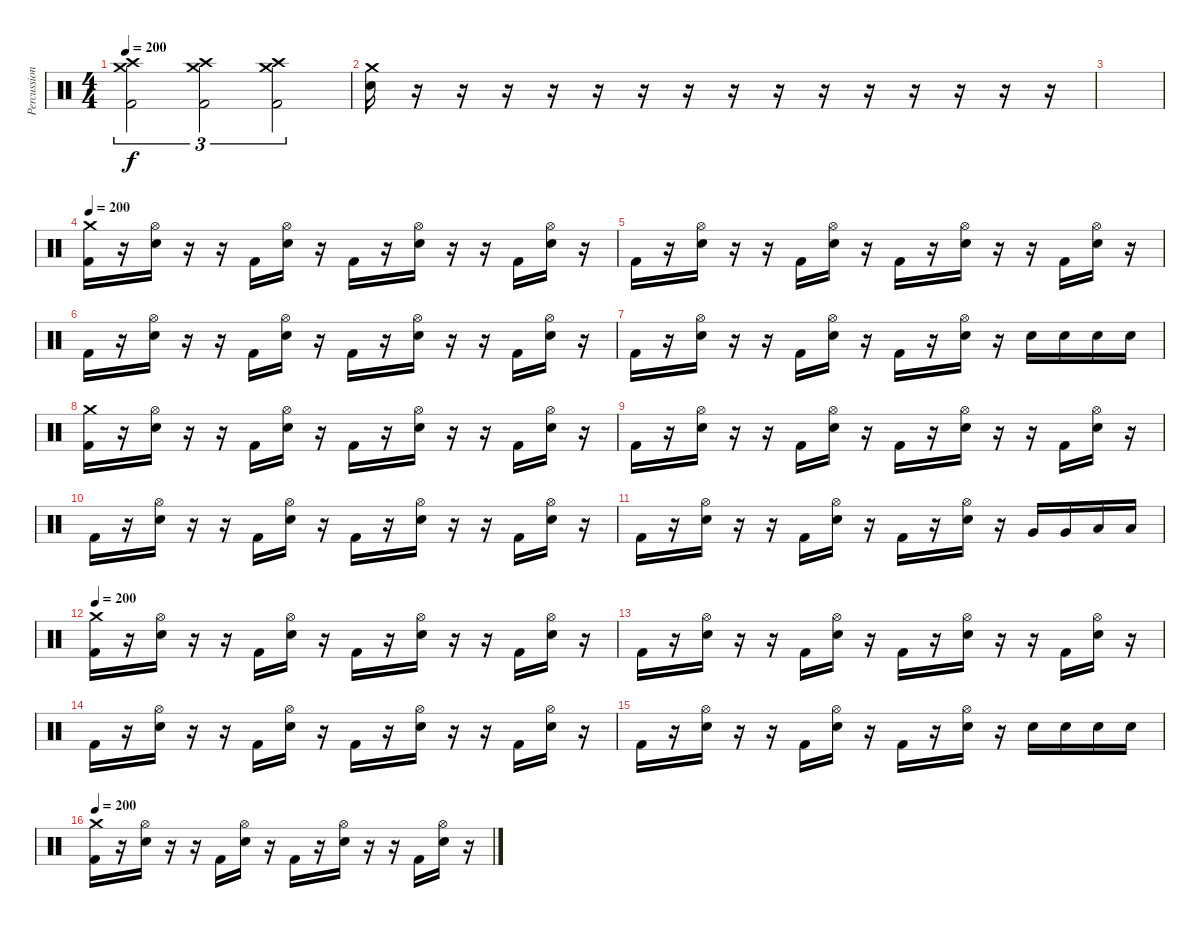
\track ("Percussion" "Percussion") {instrument percussion}
\staff {score}
\articulation defaults
\ts (4 4)
\tempo 200
\clef neutral
\ks c
("Crash medium (hit)" "Crash high (hit)" "Kick (hit) 2").2{tu (3 2) dy f} ("Crash medium (hit)" "Crash high (hit)" "Kick (hit) 2").2{tu (3 2)} ("Crash medium (hit)" "Crash high (hit)" "Kick (hit) 2").2{tu (3 2)} |
("Crash medium (hit)" "Electric Snare (hit)").16 r.16 r.16 r.16 r.16 r.16 r.16 r.16 r.16 r.16 r.16 r.16 r.16 r.16 r.16 r.16 |
|
\tempo 200
("Crash medium (hit)" "Kick (hit) 2").16 r.16 ("Hi-Hat (open)" "Electric Snare (hit)").16 r.16 r.16 "Kick (hit) 2".16 ("Hi-Hat (open)" "Electric Snare (hit)").16 r.16 "Kick (hit) 2".16 r.16 ("Hi-Hat (open)" "Electric Snare (hit)").16 r.16 r.16 "Kick (hit) 2".16 ("Hi-Hat (open)" "Electric Snare (hit)").16 r.16 |
"Kick (hit) 2".16 r.16 ("Hi-Hat (open)" "Electric Snare (hit)").16 r.16 r.16 "Kick (hit) 2".16 ("Hi-Hat (open)" "Electric Snare (hit)").16 r.16 "Kick (hit) 2".16 r.16 ("Hi-Hat (open)" "Electric Snare (hit)").16 r.16 r.16 "Kick (hit) 2".16 ("Hi-Hat (open)" "Electric Snare (hit)").16 r.16 |
"Kick (hit) 2".16 r.16 ("Hi-Hat (open)" "Electric Snare (hit)").16 r.16 r.16 "Kick (hit) 2".16 ("Hi-Hat (open)" "Electric Snare (hit)").16 r.16 "Kick (hit) 2".16 r.16 ("Hi-Hat (open)" "Electric Snare (hit)").16 r.16 r.16 "Kick (hit) 2".16 ("Hi-Hat (open)" "Electric Snare (hit)").16 r.16 |
"Kick (hit) 2".16 r.16 ("Hi-Hat (open)" "Electric Snare (hit)").16 r.16 r.16 "Kick (hit) 2".16 ("Hi-Hat (open)" "Electric Snare (hit)").16 r.16 "Kick (hit) 2".16 r.16 ("Hi-Hat (open)" "Electric Snare (hit)").16 r.16 "Electric Snare (hit)".16 "Electric Snare (hit)".16 "Electric Snare (hit)".16 "Electric Snare (hit)".16 |
("Crash medium (hit)" "Kick (hit) 2").16 r.16 ("Hi-Hat (open)" "Electric Snare (hit)").16 r.16 r.16 "Kick (hit) 2".16 ("Hi-Hat (open)" "Electric Snare (hit)").16 r.16 "Kick (hit) 2".16 r.16 ("Hi-Hat (open)" "Electric Snare (hit)").16 r.16 r.16 "Kick (hit) 2".16 ("Hi-Hat (open)" "Electric Snare (hit)").16 r.16 |
"Kick (hit) 2".16 r.16 ("Hi-Hat (open)" "Electric Snare (hit)").16 r.16 r.16 "Kick (hit) 2".16 ("Hi-Hat (open)" "Electric Snare (hit)").16 r.16 "Kick (hit) 2".16 r.16 ("Hi-Hat (open)" "Electric Snare (hit)").16 r.16 r.16 "Kick (hit) 2".16 ("Hi-Hat (open)" "Electric Snare (hit)").16 r.16 |
"Kick (hit) 2".16 r.16 ("Hi-Hat (open)" "Electric Snare (hit)").16 r.16 r.16 "Kick (hit) 2".16 ("Hi-Hat (open)" "Electric Snare (hit)").16 r.16 "Kick (hit) 2".16 r.16 ("Hi-Hat (open)" "Electric Snare (hit)").16 r.16 r.16 "Kick (hit) 2".16 ("Hi-Hat (open)" "Electric Snare (hit)").16 r.16 |
"Kick (hit) 2".16 r.16 ("Hi-Hat (open)" "Electric Snare (hit)").16 r.16 r.16 "Kick (hit) 2".16 ("Hi-Hat (open)" "Electric Snare (hit)").16 r.16 "Kick (hit) 2".16 r.16 ("Hi-Hat (open)" "Electric Snare (hit)").16 r.16 "Very Low Tom (hit)".16 "Very Low Tom (hit)".16 "Low Floor Tom (hit)".16 "Low Floor Tom (hit)".16 |
\tempo 200
("Crash medium (hit)" "Kick (hit) 2").16 r.16 ("Hi-Hat (open)" "Electric Snare (hit)").16 r.16 r.16 "Kick (hit) 2".16 ("Hi-Hat (open)" "Electric Snare (hit)").16 r.16 "Kick (hit) 2".16 r.16 ("Hi-Hat (open)" "Electric Snare (hit)").16 r.16 r.16 "Kick (hit) 2".16 ("Hi-Hat (open)" "Electric Snare (hit)").16 r.16 |
"Kick (hit) 2".16 r.16 ("Hi-Hat (open)" "Electric Snare (hit)").16 r.16 r.16 "Kick (hit) 2".16 ("Hi-Hat (open)" "Electric Snare (hit)").16 r.16 "Kick (hit) 2".16 r.16 ("Hi-Hat (open)" "Electric Snare (hit)").16 r.16 r.16 "Kick (hit) 2".16 ("Hi-Hat (open)" "Electric Snare (hit)").16 r.16 |
"Kick (hit) 2".16 r.16 ("Hi-Hat (open)" "Electric Snare (hit)").16 r.16 r.16 "Kick (hit) 2".16 ("Hi-Hat (open)" "Electric Snare (hit)").16 r.16 "Kick (hit) 2".16 r.16 ("Hi-Hat (open)" "Electric Snare (hit)").16 r.16 r.16 "Kick (hit) 2".16 ("Hi-Hat (open)" "Electric Snare (hit)").16 r.16 |
"Kick (hit) 2".16 r.16 ("Hi-Hat (open)" "Electric Snare (hit)").16 r.16 r.16 "Kick (hit) 2".16 ("Hi-Hat (open)" "Electric Snare (hit)").16 r.16 "Kick (hit) 2".16 r.16 ("Hi-Hat (open)" "Electric Snare (hit)").16 r.16 "Electric Snare (hit)".16 "Electric Snare (hit)".16 "Electric Snare (hit)".16 "Electric Snare (hit)".16 |
\tempo 200
("Crash medium (hit)" "Kick (hit) 2").16 r.16 ("Hi-Hat (open)" "Electric Snare (hit)").16 r.16 r.16 "Kick (hit) 2".16 ("Hi-Hat (open)" "Electric Snare (hit)").16 r.16 "Kick (hit) 2".16 r.16 ("Hi-Hat (open)" "Electric Snare (hit)").16 r.16 r.16 "Kick (hit) 2".16 ("Hi-Hat (open)" "Electric Snare (hit)").16 r.16
